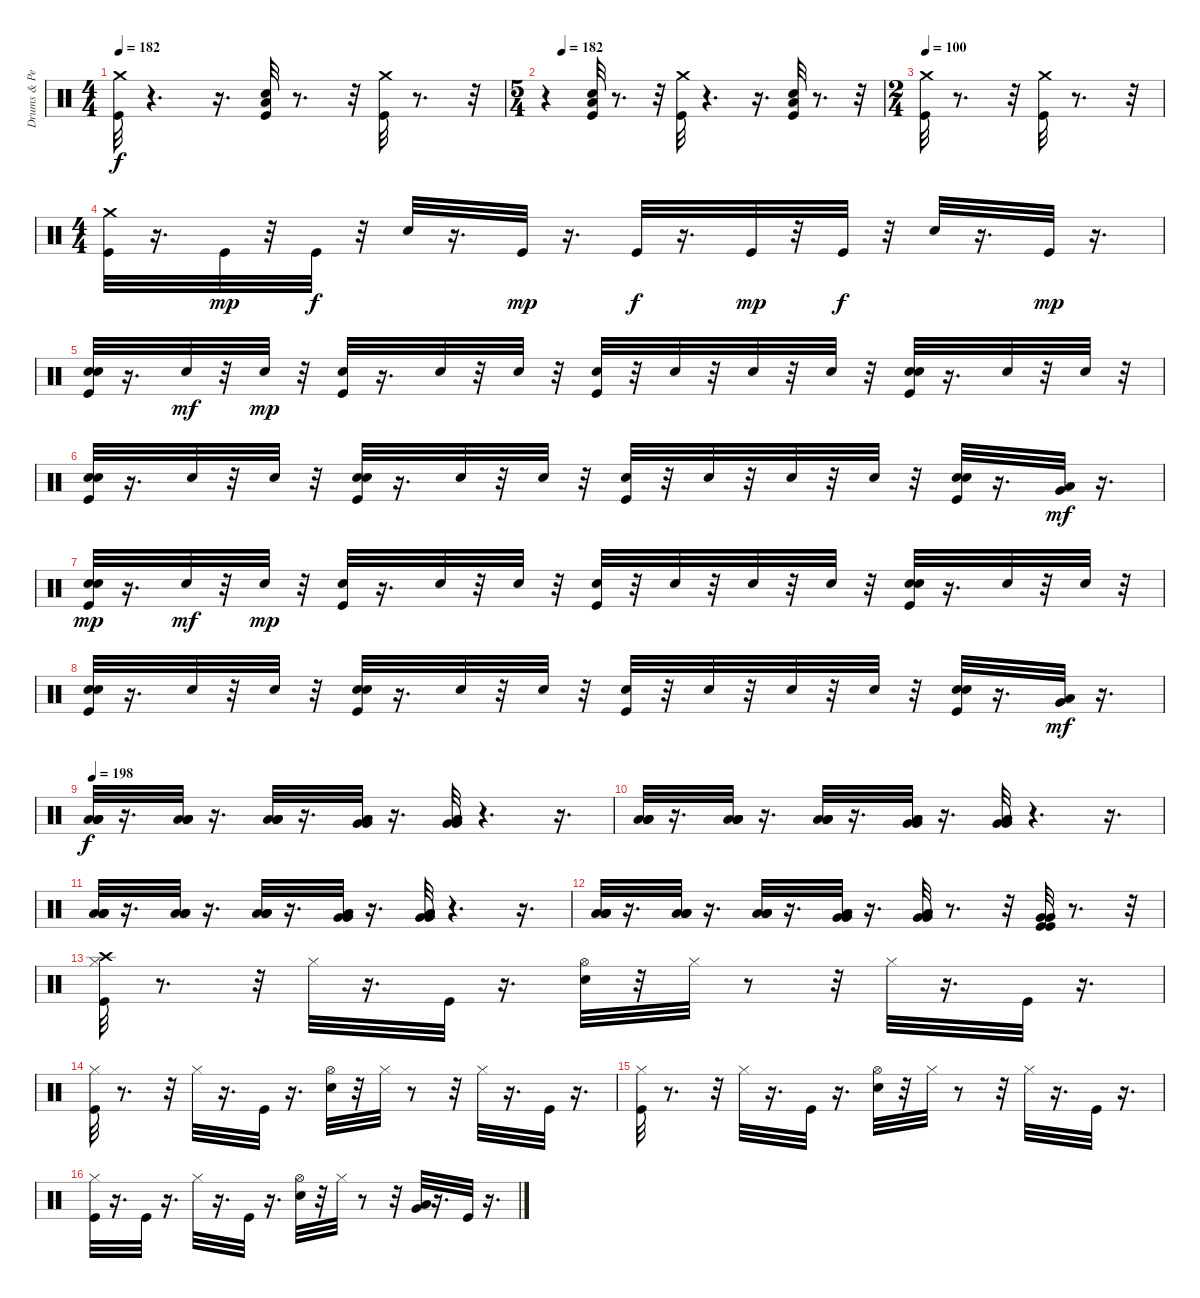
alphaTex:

\track ("Drums & Percussion" "Drums & Pe") {instrument percussion}
\staff {score}
\articulation defaults
\ts (4 4)
\tempo 182
\clef neutral
\ks c
("Kick (hit)" "Crash medium (hit)").32{dy f} r.4{d} r.16{d} ("Low Tom (hit)" "Kick (hit)" "Snare (hit) 2").32 r.8{d} r.32 ("Kick (hit)" "Crash medium (hit)").32 r.8{d} r.32 |
\ts (5 4)
\tempo (182 0.05)
r.4 ("Snare (hit) 2" "Kick (hit)" "Low Tom (hit)").32 r.8{d} r.32 ("Kick (hit)" "Crash medium (hit)").32 r.4{d} r.16{d} ("Kick (hit)" "Snare (hit) 2" "Low Tom (hit)").32 r.8{d} r.32 |
\ts (2 4)
\tempo 100
("Kick (hit)" "Crash medium (hit)").32 r.8{d} r.32 ("Kick (hit)" "Crash medium (hit)").32 r.8{d} r.32 |
\ts (4 4)
("Kick (hit)" "Crash medium (hit)").32 r.16{d} "Kick (hit)".32{dy mp} r.32 "Kick (hit)".32{dy f} r.32 "Snare (hit) 2".32 r.16{d} "Kick (hit)".32{dy mp} r.16{d} "Kick (hit)".32{dy f} r.16{d} "Kick (hit)".32{dy mp} r.32 "Kick (hit)".32{dy f} r.32 "Snare (hit) 2".32 r.16{d} "Kick (hit)".32{dy mp} r.16{d} |
("Kick (hit)" "Snare (hit) 2" "Electric Snare (hit)").32 r.16{d} "Snare (hit) 2".32{dy mf} r.32 "Snare (hit) 2".32{dy mp} r.32 ("Kick (hit)" "Snare (hit) 2").32 r.16{d} "Snare (hit) 2".32 r.32 "Snare (hit) 2".32 r.32 ("Kick (hit)" "Snare (hit) 2").32 r.32 "Snare (hit) 2".32 r.32 "Snare (hit) 2".32 r.32 "Snare (hit) 2".32 r.32 ("Kick (hit)" "Electric Snare (hit)" "Snare (hit) 2").32 r.16{d} "Snare (hit) 2".32 r.32 "Snare (hit) 2".32 r.32 |
("Kick (hit)" "Electric Snare (hit)" "Snare (hit) 2").32 r.16{d} "Snare (hit) 2".32 r.32 "Snare (hit) 2".32 r.32 ("Kick (hit)" "Snare (hit) 2" "Electric Snare (hit)").32 r.16{d} "Snare (hit) 2".32 r.32 "Snare (hit) 2".32 r.32 ("Kick (hit)" "Snare (hit) 2").32 r.32 "Snare (hit) 2".32 r.32 "Snare (hit) 2".32 r.32 "Snare (hit) 2".32 r.32 ("Kick (hit)" "Snare (hit) 2" "Electric Snare (hit)").32 r.16{d} ("Very Low Tom (hit)" "Low Tom (hit)").32{dy mf} r.16{d} |
("Kick (hit)" "Snare (hit) 2" "Electric Snare (hit)").32{dy mp} r.16{d} "Snare (hit) 2".32{dy mf} r.32 "Snare (hit) 2".32{dy mp} r.32 ("Kick (hit)" "Snare (hit) 2").32 r.16{d} "Snare (hit) 2".32 r.32 "Snare (hit) 2".32 r.32 ("Kick (hit)" "Snare (hit) 2").32 r.32 "Snare (hit) 2".32 r.32 "Snare (hit) 2".32 r.32 "Snare (hit) 2".32 r.32 ("Kick (hit)" "Electric Snare (hit)" "Snare (hit) 2").32 r.16{d} "Snare (hit) 2".32 r.32 "Snare (hit) 2".32 r.32 |
("Kick (hit)" "Electric Snare (hit)" "Snare (hit) 2").32 r.16{d} "Snare (hit) 2".32 r.32 "Snare (hit) 2".32 r.32 ("Kick (hit)" "Snare (hit) 2" "Electric Snare (hit)").32 r.16{d} "Snare (hit) 2".32 r.32 "Snare (hit) 2".32 r.32 ("Kick (hit)" "Snare (hit) 2").32 r.32 "Snare (hit) 2".32 r.32 "Snare (hit) 2".32 r.32 "Snare (hit) 2".32 r.32 ("Kick (hit)" "Snare (hit) 2" "Electric Snare (hit)").32 r.16{d} ("Very Low Tom (hit)" "Low Tom (hit)").32{dy mf} r.16{d} |
\tempo 198
("Low Floor Tom (hit)" "Low Tom (hit)" "Low Floor Tom (hit)" "Low Tom (hit)").32{dy f} r.16{d} ("Low Floor Tom (hit)" "Low Tom (hit)" "Low Floor Tom (hit)" "Low Tom (hit)").32 r.16{d} ("Low Floor Tom (hit)" "Low Tom (hit)" "Low Floor Tom (hit)" "Low Tom (hit)").32 r.16{d} ("Low Floor Tom (hit)" "Very Low Tom (hit)" "Low Floor Tom (hit)" "Very Low Tom (hit)").32 r.16{d} ("Low Floor Tom (hit)" "Very Low Tom (hit)" "Low Floor Tom (hit)" "Very Low Tom (hit)").32 r.4{d} r.16{d} |
("Low Floor Tom (hit)" "Low Tom (hit)" "Low Floor Tom (hit)" "Low Tom (hit)").32 r.16{d} ("Low Floor Tom (hit)" "Low Tom (hit)" "Low Floor Tom (hit)" "Low Tom (hit)").32 r.16{d} ("Low Floor Tom (hit)" "Low Tom (hit)" "Low Floor Tom (hit)" "Low Tom (hit)").32 r.16{d} ("Low Floor Tom (hit)" "Very Low Tom (hit)" "Low Floor Tom (hit)" "Very Low Tom (hit)").32 r.16{d} ("Low Floor Tom (hit)" "Very Low Tom (hit)" "Low Floor Tom (hit)" "Very Low Tom (hit)").32 r.4{d} r.16{d} |
("Low Floor Tom (hit)" "Low Tom (hit)" "Low Floor Tom (hit)" "Low Tom (hit)").32 r.16{d} ("Low Floor Tom (hit)" "Low Tom (hit)" "Low Floor Tom (hit)" "Low Tom (hit)").32 r.16{d} ("Low Floor Tom (hit)" "Low Tom (hit)" "Low Floor Tom (hit)" "Low Tom (hit)").32 r.16{d} ("Low Floor Tom (hit)" "Very Low Tom (hit)" "Low Floor Tom (hit)" "Very Low Tom (hit)").32 r.16{d} ("Low Floor Tom (hit)" "Very Low Tom (hit)" "Low Floor Tom (hit)" "Very Low Tom (hit)").32 r.4{d} r.16{d} |
("Low Floor Tom (hit)" "Low Tom (hit)" "Low Floor Tom (hit)" "Low Tom (hit)").32 r.16{d} ("Low Floor Tom (hit)" "Low Tom (hit)" "Low Floor Tom (hit)" "Low Tom (hit)").32 r.16{d} ("Low Floor Tom (hit)" "Low Tom (hit)" "Low Floor Tom (hit)" "Low Tom (hit)").32 r.16{d} ("Low Floor Tom (hit)" "Very Low Tom (hit)" "Low Floor Tom (hit)" "Very Low Tom (hit)").32 r.16{d} ("Low Floor Tom (hit)" "Very Low Tom (hit)" "Low Floor Tom (hit)" "Very Low Tom (hit)").32 r.8{d} r.32 ("Very Low Tom (hit)" "Kick (hit)" "Very Low Tom (hit)" "Kick (hit)").32 r.8{d} r.32 |
("Crash high (hit)" "Hi-Hat (closed)" "Kick (hit)").32 r.8{d} r.32 "Hi-Hat (closed)".32 r.16{d} "Kick (hit)".32 r.16{d} ("Hi-Hat (open)" "Snare (hit) 2").32 r.32 "Hi-Hat (closed)".32 r.8 r.32 "Hi-Hat (closed)".32 r.16{d} "Kick (hit)".32 r.16{d} |
("Hi-Hat (closed)" "Kick (hit)").32 r.8{d} r.32 "Hi-Hat (closed)".32 r.16{d} "Kick (hit)".32 r.16{d} ("Hi-Hat (open)" "Snare (hit) 2").32 r.32 "Hi-Hat (closed)".32 r.8 r.32 "Hi-Hat (closed)".32 r.16{d} "Kick (hit)".32 r.16{d} |
("Kick (hit)" "Hi-Hat (closed)").32 r.8{d} r.32 "Hi-Hat (closed)".32 r.16{d} "Kick (hit)".32 r.16{d} ("Snare (hit) 2" "Hi-Hat (open)").32 r.32 "Hi-Hat (closed)".32 r.8 r.32 "Hi-Hat (closed)".32 r.16{d} "Kick (hit)".32 r.16{d} |
("Hi-Hat (closed)" "Kick (hit)").32 r.16{d} "Kick (hit)".32 r.16{d} "Hi-Hat (closed)".32 r.16{d} "Kick (hit)".32 r.16{d} ("Hi-Hat (open)" "Snare (hit) 2").32 r.32 "Hi-Hat (closed)".32 r.8 r.32 ("Very Low Tom (hit)" "Low Tom (hit)").32 r.16{d} "Kick (hit)".32 r.16{d}
